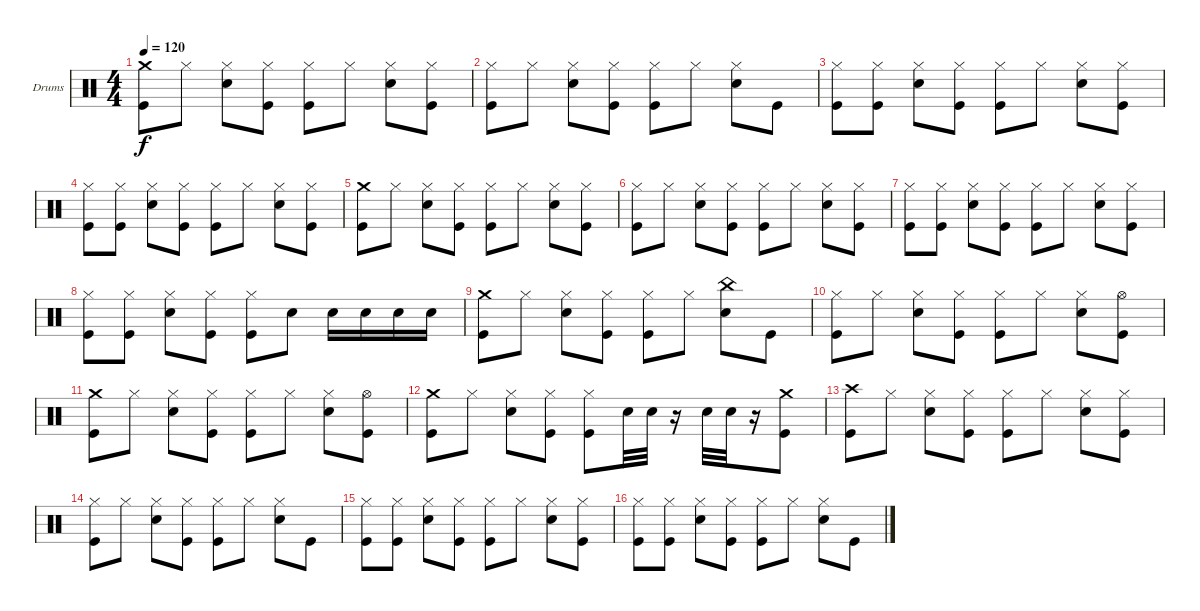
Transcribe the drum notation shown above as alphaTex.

\defaultSystemsLayout 4
\bracketExtendMode groupsimilarinstruments
\firstSystemTrackNameOrientation horizontal
\otherSystemsTrackNameOrientation horizontal
\track ("Stefan Schwarzmann" "Drums") {instrument percussion}
\staff {score}
\articulation defaults
\ts (4 4)
\tempo 120
\clef neutral
\ks c
("Crash medium (hit)" "Kick (hit)").8{dy f} "Hi-Hat (closed)".8 ("Hi-Hat (closed)" "Snare (hit) 2").8 ("Hi-Hat (closed)" "Kick (hit)").8 ("Hi-Hat (closed)" "Kick (hit)").8 "Hi-Hat (closed)".8 ("Hi-Hat (closed)" "Snare (hit) 2").8 ("Hi-Hat (closed)" "Kick (hit)").8 |
("Hi-Hat (closed)" "Kick (hit)").8 "Hi-Hat (closed)".8 ("Hi-Hat (closed)" "Snare (hit) 2").8 ("Hi-Hat (closed)" "Kick (hit)").8 ("Hi-Hat (closed)" "Kick (hit)").8 "Hi-Hat (closed)".8 ("Hi-Hat (closed)" "Snare (hit) 2").8 "Kick (hit)".8 |
("Hi-Hat (closed)" "Kick (hit)").8 ("Hi-Hat (closed)" "Kick (hit)").8 ("Hi-Hat (closed)" "Snare (hit) 2").8 ("Hi-Hat (closed)" "Kick (hit)").8 ("Hi-Hat (closed)" "Kick (hit)").8 "Hi-Hat (closed)".8 ("Hi-Hat (closed)" "Snare (hit) 2").8 ("Hi-Hat (closed)" "Kick (hit)").8 |
("Hi-Hat (closed)" "Kick (hit)").8 ("Hi-Hat (closed)" "Kick (hit)").8 ("Hi-Hat (closed)" "Snare (hit) 2").8 ("Hi-Hat (closed)" "Kick (hit)").8 ("Hi-Hat (closed)" "Kick (hit)").8 "Hi-Hat (closed)".8 ("Hi-Hat (closed)" "Snare (hit) 2").8 ("Kick (hit)" "Hi-Hat (closed)").8 |
("Crash medium (hit)" "Kick (hit)").8 "Hi-Hat (closed)".8 ("Hi-Hat (closed)" "Snare (hit) 2").8 ("Hi-Hat (closed)" "Kick (hit)").8 ("Hi-Hat (closed)" "Kick (hit)").8 "Hi-Hat (closed)".8 ("Hi-Hat (closed)" "Snare (hit) 2").8 ("Hi-Hat (closed)" "Kick (hit)").8 |
("Hi-Hat (closed)" "Kick (hit)").8 "Hi-Hat (closed)".8 ("Hi-Hat (closed)" "Snare (hit) 2").8 ("Hi-Hat (closed)" "Kick (hit)").8 ("Hi-Hat (closed)" "Kick (hit)").8 "Hi-Hat (closed)".8 ("Hi-Hat (closed)" "Snare (hit) 2").8 ("Kick (hit)" "Hi-Hat (closed)").8 |
("Hi-Hat (closed)" "Kick (hit)").8 ("Hi-Hat (closed)" "Kick (hit)").8 ("Hi-Hat (closed)" "Snare (hit) 2").8 ("Hi-Hat (closed)" "Kick (hit)").8 ("Hi-Hat (closed)" "Kick (hit)").8 "Hi-Hat (closed)".8 ("Hi-Hat (closed)" "Snare (hit) 2").8 ("Hi-Hat (closed)" "Kick (hit)").8 |
("Hi-Hat (closed)" "Kick (hit)").8 ("Hi-Hat (closed)" "Kick (hit)").8 ("Hi-Hat (closed)" "Snare (hit) 2").8 ("Hi-Hat (closed)" "Kick (hit)").8 ("Hi-Hat (closed)" "Kick (hit)").8 "Snare (hit) 2".8 "Snare (hit) 2".16 "Snare (hit) 2".16 "Snare (hit) 2".16 "Snare (hit) 2".16 |
("Crash medium (hit)" "Kick (hit)").8 "Hi-Hat (closed)".8 ("Hi-Hat (closed)" "Snare (hit) 2").8 ("Hi-Hat (closed)" "Kick (hit)").8 ("Hi-Hat (closed)" "Kick (hit)").8 "Hi-Hat (closed)".8 ("China (hit)" "Snare (hit) 2").8 "Kick (hit)".8 |
("Hi-Hat (closed)" "Kick (hit)").8 "Hi-Hat (closed)".8 ("Hi-Hat (closed)" "Snare (hit) 2").8 ("Hi-Hat (closed)" "Kick (hit)").8 ("Hi-Hat (closed)" "Kick (hit)").8 "Hi-Hat (closed)".8 ("Hi-Hat (closed)" "Snare (hit) 2").8 ("Hi-Hat (open)" "Kick (hit)").8 |
("Crash medium (hit)" "Kick (hit)").8 "Hi-Hat (closed)".8 ("Hi-Hat (closed)" "Snare (hit) 2").8 ("Hi-Hat (closed)" "Kick (hit)").8 ("Hi-Hat (closed)" "Kick (hit)").8 "Hi-Hat (closed)".8 ("Hi-Hat (closed)" "Snare (hit) 2").8 ("Hi-Hat (open)" "Kick (hit)").8 |
("Crash medium (hit)" "Kick (hit)").8 "Hi-Hat (closed)".8 ("Hi-Hat (closed)" "Snare (hit) 2").8 ("Hi-Hat (closed)" "Kick (hit)").8 ("Hi-Hat (closed)" "Kick (hit)").8 "Snare (hit) 2".32 "Snare (hit) 2".32 r.16 "Snare (hit) 2".32 "Snare (hit) 2".32 r.16 ("Kick (hit)" "Crash medium (hit)").8 |
("Kick (hit)" "Crash high (hit)").8 "Hi-Hat (closed)".8 ("Hi-Hat (closed)" "Snare (hit) 2").8 ("Hi-Hat (closed)" "Kick (hit)").8 ("Hi-Hat (closed)" "Kick (hit)").8 "Hi-Hat (closed)".8 ("Hi-Hat (closed)" "Snare (hit) 2").8 ("Hi-Hat (closed)" "Kick (hit)").8 |
("Hi-Hat (closed)" "Kick (hit)").8 "Hi-Hat (closed)".8 ("Hi-Hat (closed)" "Snare (hit) 2").8 ("Hi-Hat (closed)" "Kick (hit)").8 ("Hi-Hat (closed)" "Kick (hit)").8 "Hi-Hat (closed)".8 ("Hi-Hat (closed)" "Snare (hit) 2").8 "Kick (hit)".8 |
("Hi-Hat (closed)" "Kick (hit)").8 ("Hi-Hat (closed)" "Kick (hit)").8 ("Hi-Hat (closed)" "Snare (hit) 2").8 ("Hi-Hat (closed)" "Kick (hit)").8 ("Hi-Hat (closed)" "Kick (hit)").8 "Hi-Hat (closed)".8 ("Hi-Hat (closed)" "Snare (hit) 2").8 ("Hi-Hat (closed)" "Kick (hit)").8 |
("Hi-Hat (closed)" "Kick (hit)").8 ("Hi-Hat (closed)" "Kick (hit)").8 ("Hi-Hat (closed)" "Snare (hit) 2").8 ("Hi-Hat (closed)" "Kick (hit)").8 ("Hi-Hat (closed)" "Kick (hit)").8 "Hi-Hat (closed)".8 ("Hi-Hat (closed)" "Snare (hit) 2").8 "Kick (hit)".8
